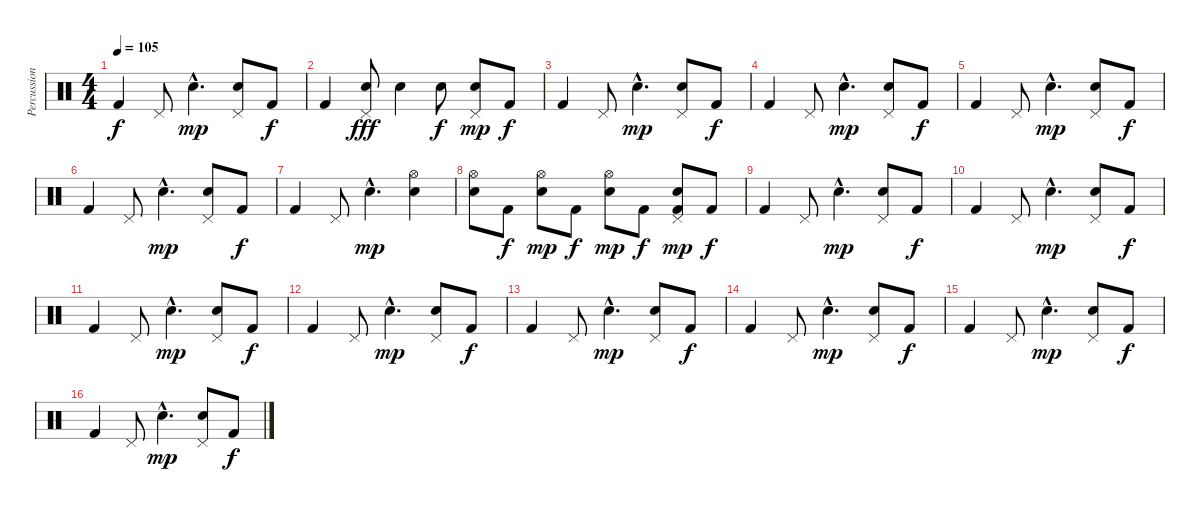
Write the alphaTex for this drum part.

\track ("Percussion" "Percussion") {instrument percussion}
\staff {score}
\articulation defaults
\ts (4 4)
\tempo 105
\clef neutral
\ks c "Kick (hit) 2".4{dy f} "Pedal Hi-Hat (hit)".8 "Hand Clap (hit)"{hac}.4{d dy mp}
("Pedal Hi-Hat (hit)" "Hand Clap (hit)").8 "Kick (hit) 2".8{dy f} |
"Kick (hit) 2".4 ("Pedal Hi-Hat (hit)" "Hand Clap (hit)").8{dy fff} "Hand Clap (hit)".4 "Hand Clap (hit)".8{dy f} ("Pedal Hi-Hat (hit)" "Hand Clap (hit)").8{dy mp} "Kick (hit) 2".8{dy f} |
"Kick (hit) 2".4 "Pedal Hi-Hat (hit)".8 "Hand Clap (hit)"{hac}.4{d dy mp} ("Pedal Hi-Hat (hit)" "Hand Clap (hit)").8 "Kick (hit) 2".8{dy f} |
"Kick (hit) 2".4 "Pedal Hi-Hat (hit)".8 "Hand Clap (hit)"{hac}.4{d dy mp} ("Pedal Hi-Hat (hit)" "Hand Clap (hit)").8 "Kick (hit) 2".8{dy f} |
"Kick (hit) 2".4 "Pedal Hi-Hat (hit)".8 "Hand Clap (hit)"{hac}.4{d dy mp} ("Pedal Hi-Hat (hit)" "Hand Clap (hit)").8 "Kick (hit) 2".8{dy f} |
"Kick (hit) 2".4 "Pedal Hi-Hat (hit)".8 "Hand Clap (hit)"{hac}.4{d dy mp} ("Pedal Hi-Hat (hit)" "Hand Clap (hit)").8 "Kick (hit) 2".8{dy f} |
"Kick (hit) 2".4 "Pedal Hi-Hat (hit)".8 "Hand Clap (hit)"{hac}.4{d dy mp} ("Hi-Hat (open)" "Hand Clap (hit)").4 |
("Hi-Hat (open)" "Hand Clap (hit)").8 "Kick (hit) 2".8{dy f} ("Hi-Hat (open)" "Hand Clap (hit)").8{dy mp} "Kick (hit) 2".8{dy f} ("Hi-Hat (open)" "Hand Clap (hit)").8{dy mp} "Kick (hit) 2".8{dy f} ("Pedal Hi-Hat (hit)" "Hand Clap (hit)" "Kick (hit) 2").8{dy mp} "Kick (hit) 2".8{dy f} |
"Kick (hit) 2".4 "Pedal Hi-Hat (hit)".8 "Hand Clap (hit)"{hac}.4{d dy mp} ("Pedal Hi-Hat (hit)" "Hand Clap (hit)").8 "Kick (hit) 2".8{dy f} |
"Kick (hit) 2".4 "Pedal Hi-Hat (hit)".8 "Hand Clap (hit)"{hac}.4{d dy mp} ("Pedal Hi-Hat (hit)" "Hand Clap (hit)").8 "Kick (hit) 2".8{dy f} |
"Kick (hit) 2".4 "Pedal Hi-Hat (hit)".8 "Hand Clap (hit)"{hac}.4{d dy mp} ("Pedal Hi-Hat (hit)" "Hand Clap (hit)").8 "Kick (hit) 2".8{dy f} |
"Kick (hit) 2".4 "Pedal Hi-Hat (hit)".8 "Hand Clap (hit)"{hac}.4{d dy mp} ("Pedal Hi-Hat (hit)" "Hand Clap (hit)").8 "Kick (hit) 2".8{dy f} |
"Kick (hit) 2".4 "Pedal Hi-Hat (hit)".8 "Hand Clap (hit)"{hac}.4{d dy mp} ("Pedal Hi-Hat (hit)" "Hand Clap (hit)").8 "Kick (hit) 2".8{dy f} |
"Kick (hit) 2".4 "Pedal Hi-Hat (hit)".8 "Hand Clap (hit)"{hac}.4{d dy mp} ("Pedal Hi-Hat (hit)" "Hand Clap (hit)").8 "Kick (hit) 2".8{dy f} |
"Kick (hit) 2".4 "Pedal Hi-Hat (hit)".8 "Hand Clap (hit)"{hac}.4{d dy mp} ("Pedal Hi-Hat (hit)" "Hand Clap (hit)").8 "Kick (hit) 2".8{dy f} |
"Kick (hit) 2".4 "Pedal Hi-Hat (hit)".8 "Hand Clap (hit)"{hac}.4{d dy mp} ("Pedal Hi-Hat (hit)" "Hand Clap (hit)").8 "Kick (hit) 2".8{dy f}
